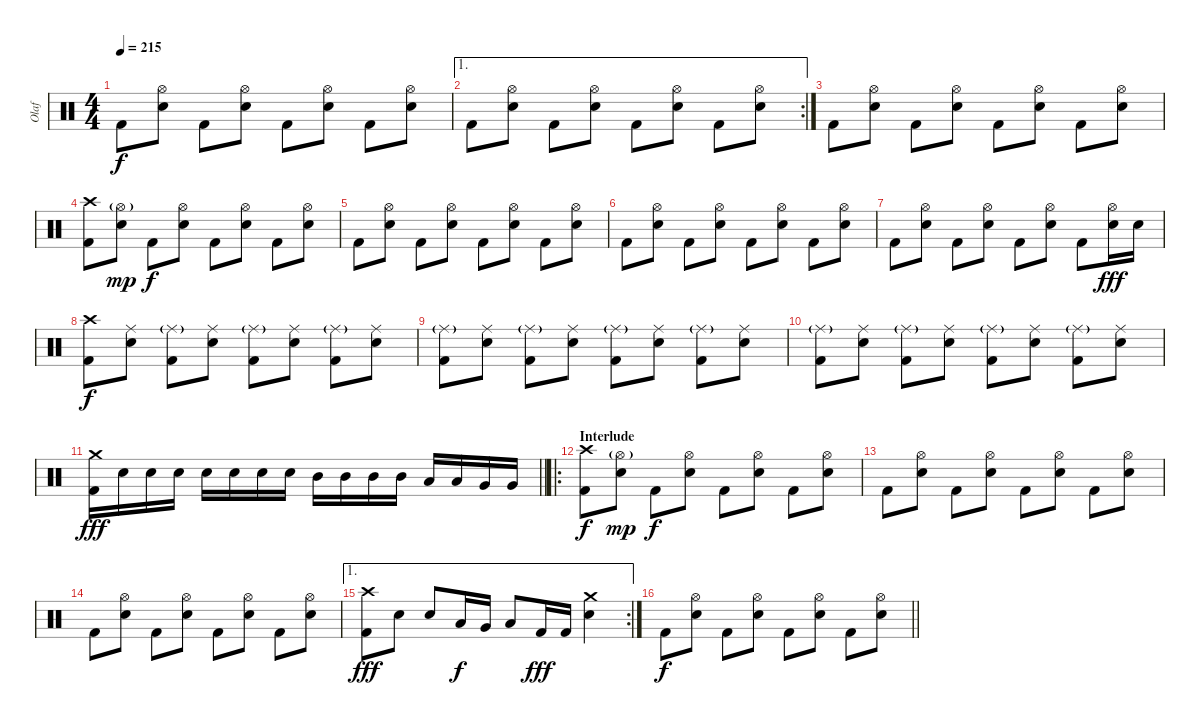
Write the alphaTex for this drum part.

\track ("Olaf" "Olaf") {instrument percussion}
\staff {score}
\articulation defaults
\ts (4 4)
\tempo 215
\clef neutral
\ks c "Kick (hit) 2".8{dy f}
("Hi-Hat (open)" "Electric Snare (hit)").8 "Kick (hit) 2".8 ("Hi-Hat (open)" "Electric Snare (hit)").8 "Kick (hit) 2".8 ("Hi-Hat (open)" "Electric Snare (hit)").8 "Kick (hit) 2".8 ("Hi-Hat (open)" "Electric Snare (hit)").8 |
\ae 1
\rc 2 "Kick (hit) 2".8
("Hi-Hat (open)" "Electric Snare (hit)").8 "Kick (hit) 2".8 ("Hi-Hat (open)" "Electric Snare (hit)").8 "Kick (hit) 2".8 ("Hi-Hat (open)" "Electric Snare (hit)").8 "Kick (hit) 2".8 ("Hi-Hat (open)" "Electric Snare (hit)").8 |
"Kick (hit) 2".8 ("Hi-Hat (open)" "Electric Snare (hit)").8 "Kick (hit) 2".8 ("Hi-Hat (open)" "Electric Snare (hit)").8 "Kick (hit) 2".8 ("Hi-Hat (open)" "Electric Snare (hit)").8 "Kick (hit) 2".8 ("Hi-Hat (open)" "Electric Snare (hit)").8 |
("Crash high (hit)" "Kick (hit) 2").8 ("Hi-Hat (open)"{g} "Electric Snare (hit)").8{dy mp} "Kick (hit) 2".8{dy f} ("Hi-Hat (open)" "Electric Snare (hit)").8 "Kick (hit) 2".8 ("Hi-Hat (open)" "Electric Snare (hit)").8 "Kick (hit) 2".8 ("Hi-Hat (open)" "Electric Snare (hit)").8 |
"Kick (hit) 2".8 ("Hi-Hat (open)" "Electric Snare (hit)").8 "Kick (hit) 2".8 ("Hi-Hat (open)" "Electric Snare (hit)").8 "Kick (hit) 2".8 ("Hi-Hat (open)" "Electric Snare (hit)").8 "Kick (hit) 2".8 ("Hi-Hat (open)" "Electric Snare (hit)").8 |
"Kick (hit) 2".8 ("Hi-Hat (open)" "Electric Snare (hit)").8 "Kick (hit) 2".8 ("Hi-Hat (open)" "Electric Snare (hit)").8 "Kick (hit) 2".8 ("Hi-Hat (open)" "Electric Snare (hit)").8 "Kick (hit) 2".8 ("Hi-Hat (open)" "Electric Snare (hit)").8 |
"Kick (hit) 2".8 ("Hi-Hat (open)" "Electric Snare (hit)").8 "Kick (hit) 2".8 ("Hi-Hat (open)" "Electric Snare (hit)").8 "Kick (hit) 2".8 ("Hi-Hat (open)" "Electric Snare (hit)").8 "Kick (hit) 2".8 ("Hi-Hat (open)" "Electric Snare (hit)").16{dy fff} "Electric Snare (hit)".16 |
("Crash high (hit)" "Kick (hit) 2").8{dy f} ("Ride (middle)" "Electric Snare (hit)").8 ("Ride (middle)"{g} "Kick (hit) 2").8 ("Ride (middle)" "Electric Snare (hit)").8 ("Ride (middle)"{g} "Kick (hit) 2").8 ("Ride (middle)" "Electric Snare (hit)").8 ("Ride (middle)"{g} "Kick (hit) 2").8 ("Ride (middle)" "Electric Snare (hit)").8 |
("Ride (middle)"{g} "Kick (hit) 2").8 ("Ride (middle)" "Electric Snare (hit)").8 ("Ride (middle)"{g} "Kick (hit) 2").8 ("Ride (middle)" "Electric Snare (hit)").8 ("Ride (middle)"{g} "Kick (hit) 2").8 ("Ride (middle)" "Electric Snare (hit)").8 ("Ride (middle)"{g} "Kick (hit) 2").8 ("Ride (middle)" "Electric Snare (hit)").8 |
("Ride (middle)"{g} "Kick (hit) 2").8 ("Ride (middle)" "Electric Snare (hit)").8 ("Ride (middle)"{g} "Kick (hit) 2").8 ("Ride (middle)" "Electric Snare (hit)").8 ("Ride (middle)"{g} "Kick (hit) 2").8 ("Ride (middle)" "Electric Snare (hit)").8 ("Ride (middle)"{g} "Kick (hit) 2").8 ("Ride (middle)" "Electric Snare (hit)").8 |
\barLineRight lightlight
("Crash medium (hit)" "Kick (hit) 2").16{dy fff} "Electric Snare (hit)".16 "Electric Snare (hit)".16 "Electric Snare (hit)".16 "Electric Snare (hit)".16 "Electric Snare (hit)".16 "Electric Snare (hit)".16 "Electric Snare (hit)".16 "Mid Tom (hit)".16 "Mid Tom (hit)".16 "Mid Tom (hit)".16 "Mid Tom (hit)".16 "Low Tom (hit)".16 "Low Tom (hit)".16 "Very Low Tom (hit)".16 "Very Low Tom (hit)".16 |
\ro
\section ("" "Interlude")
("Crash high (hit)" "Kick (hit) 2").8{dy f} ("Hi-Hat (open)"{g} "Electric Snare (hit)").8{dy mp} "Kick (hit) 2".8{dy f} ("Hi-Hat (open)" "Electric Snare (hit)").8 "Kick (hit) 2".8 ("Hi-Hat (open)" "Electric Snare (hit)").8 "Kick (hit) 2".8 ("Hi-Hat (open)" "Electric Snare (hit)").8 |
"Kick (hit) 2".8 ("Hi-Hat (open)" "Electric Snare (hit)").8 "Kick (hit) 2".8 ("Hi-Hat (open)" "Electric Snare (hit)").8 "Kick (hit) 2".8 ("Hi-Hat (open)" "Electric Snare (hit)").8 "Kick (hit) 2".8 ("Hi-Hat (open)" "Electric Snare (hit)").8 |
"Kick (hit) 2".8 ("Hi-Hat (open)" "Electric Snare (hit)").8 "Kick (hit) 2".8 ("Hi-Hat (open)" "Electric Snare (hit)").8 "Kick (hit) 2".8 ("Hi-Hat (open)" "Electric Snare (hit)").8 "Kick (hit) 2".8 ("Hi-Hat (open)" "Electric Snare (hit)").8 |
\ae 1
\rc 2
("Crash high (hit)" "Kick (hit) 2").8{dy fff} "Electric Snare (hit)".8 "Electric Snare (hit)".8 "Low Tom (hit)".16{dy f} "Very Low Tom (hit)".16 "Low Floor Tom (hit)".8 "Kick (hit) 2".16{dy fff} "Kick (hit) 2".16 ("Crash medium (hit)" "Electric Snare (hit)").4 |
\barLineRight lightlight "Kick (hit) 2".8{dy f}
("Hi-Hat (open)" "Electric Snare (hit)").8 "Kick (hit) 2".8 ("Hi-Hat (open)" "Electric Snare (hit)").8 "Kick (hit) 2".8 ("Hi-Hat (open)" "Electric Snare (hit)").8 "Kick (hit) 2".8 ("Hi-Hat (open)" "Electric Snare (hit)").8
